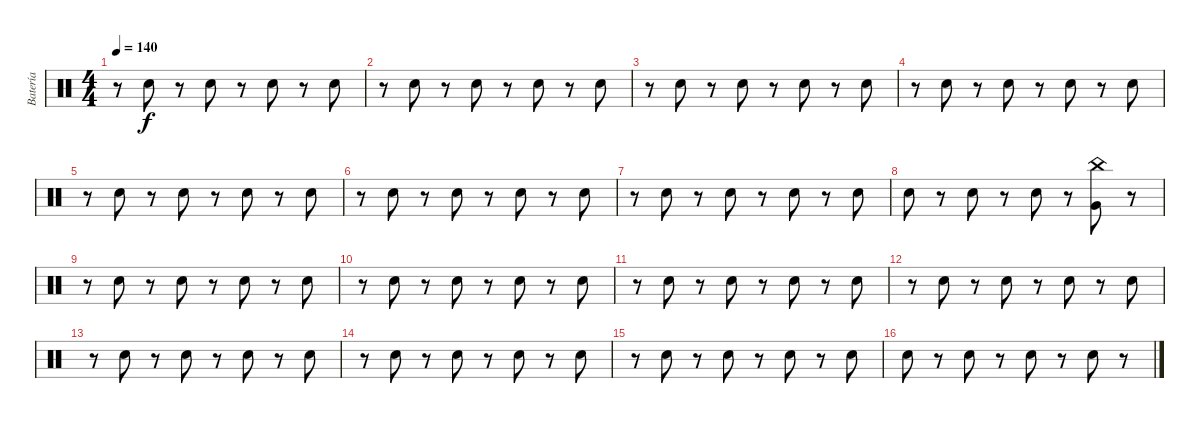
\track ("Batería" "Batería") {instrument percussion}
\staff {score}
\articulation defaults
\ts (4 4)
\tempo 140
\clef neutral
\ks c
r.8{dy f} "Snare (hit) 2".8 r.8 "Snare (hit) 2".8 r.8 "Snare (hit) 2".8 r.8 "Snare (hit) 2".8 |
r.8 "Snare (hit) 2".8 r.8 "Snare (hit) 2".8 r.8 "Snare (hit) 2".8 r.8 "Snare (hit) 2".8 |
r.8 "Snare (hit) 2".8 r.8 "Snare (hit) 2".8 r.8 "Snare (hit) 2".8 r.8 "Snare (hit) 2".8 |
r.8 "Snare (hit) 2".8 r.8 "Snare (hit) 2".8 r.8 "Snare (hit) 2".8 r.8 "Snare (hit) 2".8 |
r.8 "Snare (hit) 2".8 r.8 "Snare (hit) 2".8 r.8 "Snare (hit) 2".8 r.8 "Snare (hit) 2".8 |
r.8 "Snare (hit) 2".8 r.8 "Snare (hit) 2".8 r.8 "Snare (hit) 2".8 r.8 "Snare (hit) 2".8 |
r.8 "Snare (hit) 2".8 r.8 "Snare (hit) 2".8 r.8 "Snare (hit) 2".8 r.8 "Snare (hit) 2".8 |
"Snare (hit) 2".8 r.8 "Snare (hit) 2".8 r.8 "Snare (hit) 2".8 r.8 ("China (hit)" "Very Low Tom (hit)").8 r.8 |
r.8 "Snare (hit) 2".8 r.8 "Snare (hit) 2".8 r.8 "Snare (hit) 2".8 r.8 "Snare (hit) 2".8 |
r.8 "Snare (hit) 2".8 r.8 "Snare (hit) 2".8 r.8 "Snare (hit) 2".8 r.8 "Snare (hit) 2".8 |
r.8 "Snare (hit) 2".8 r.8 "Snare (hit) 2".8 r.8 "Snare (hit) 2".8 r.8 "Snare (hit) 2".8 |
r.8 "Snare (hit) 2".8 r.8 "Snare (hit) 2".8 r.8 "Snare (hit) 2".8 r.8 "Snare (hit) 2".8 |
r.8 "Snare (hit) 2".8 r.8 "Snare (hit) 2".8 r.8 "Snare (hit) 2".8 r.8 "Snare (hit) 2".8 |
r.8 "Snare (hit) 2".8 r.8 "Snare (hit) 2".8 r.8 "Snare (hit) 2".8 r.8 "Snare (hit) 2".8 |
r.8 "Snare (hit) 2".8 r.8 "Snare (hit) 2".8 r.8 "Snare (hit) 2".8 r.8 "Snare (hit) 2".8 |
"Snare (hit) 2".8 r.8 "Snare (hit) 2".8 r.8 "Snare (hit) 2".8 r.8 "Snare (hit) 2".8 r.8
